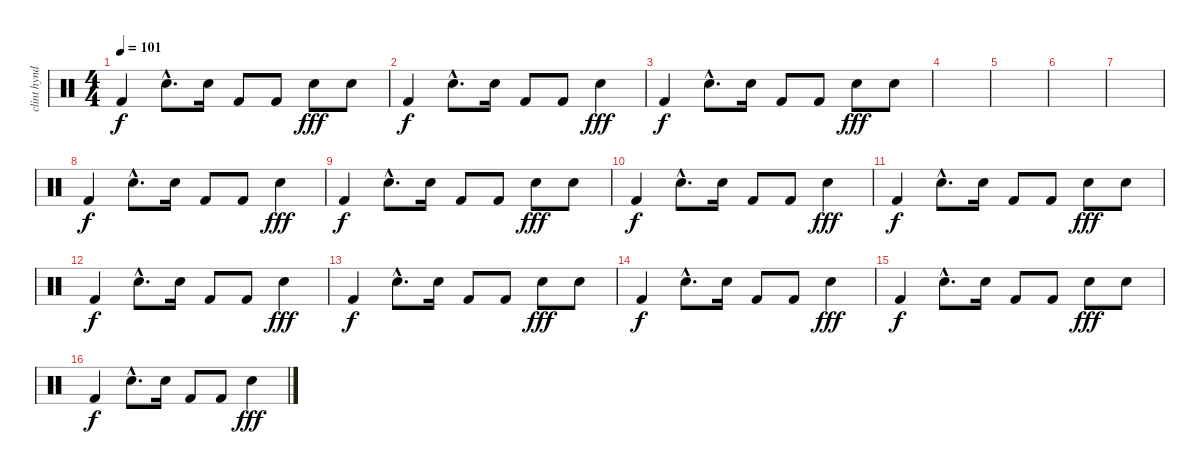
\track ("clint hyndman" "clint hynd") {instrument percussion}
\staff {score}
\articulation defaults
\ts (4 4)
\tempo 101
\clef neutral
\ks c "Kick (hit) 2".4{dy f} "Electric Snare (hit)"{hac}.8{d} "Electric Snare (hit)".16 "Kick (hit) 2".8 "Kick (hit) 2".8 "Electric Snare (hit)".8{dy fff} "Electric Snare (hit)".8
|
"Kick (hit) 2".4{dy f} "Electric Snare (hit)"{hac}.8{d} "Electric Snare (hit)".16 "Kick (hit) 2".8 "Kick (hit) 2".8 "Electric Snare (hit)".4{dy fff} |
"Kick (hit) 2".4{dy f} "Electric Snare (hit)"{hac}.8{d} "Electric Snare (hit)".16 "Kick (hit) 2".8 "Kick (hit) 2".8 "Electric Snare (hit)".8{dy fff} "Electric Snare (hit)".8 |
|
|
|
|
"Kick (hit) 2".4{dy f} "Electric Snare (hit)"{hac}.8{d} "Electric Snare (hit)".16 "Kick (hit) 2".8 "Kick (hit) 2".8 "Electric Snare (hit)".4{dy fff} |
"Kick (hit) 2".4{dy f} "Electric Snare (hit)"{hac}.8{d} "Electric Snare (hit)".16 "Kick (hit) 2".8 "Kick (hit) 2".8 "Electric Snare (hit)".8{dy fff} "Electric Snare (hit)".8 |
"Kick (hit) 2".4{dy f} "Electric Snare (hit)"{hac}.8{d} "Electric Snare (hit)".16 "Kick (hit) 2".8 "Kick (hit) 2".8 "Electric Snare (hit)".4{dy fff} |
"Kick (hit) 2".4{dy f} "Electric Snare (hit)"{hac}.8{d} "Electric Snare (hit)".16 "Kick (hit) 2".8 "Kick (hit) 2".8 "Electric Snare (hit)".8{dy fff} "Electric Snare (hit)".8 |
"Kick (hit) 2".4{dy f} "Electric Snare (hit)"{hac}.8{d} "Electric Snare (hit)".16 "Kick (hit) 2".8 "Kick (hit) 2".8 "Electric Snare (hit)".4{dy fff} |
"Kick (hit) 2".4{dy f} "Electric Snare (hit)"{hac}.8{d} "Electric Snare (hit)".16 "Kick (hit) 2".8 "Kick (hit) 2".8 "Electric Snare (hit)".8{dy fff} "Electric Snare (hit)".8 |
"Kick (hit) 2".4{dy f} "Electric Snare (hit)"{hac}.8{d} "Electric Snare (hit)".16 "Kick (hit) 2".8 "Kick (hit) 2".8 "Electric Snare (hit)".4{dy fff} |
"Kick (hit) 2".4{dy f} "Electric Snare (hit)"{hac}.8{d} "Electric Snare (hit)".16 "Kick (hit) 2".8 "Kick (hit) 2".8 "Electric Snare (hit)".8{dy fff} "Electric Snare (hit)".8 |
"Kick (hit) 2".4{dy f} "Electric Snare (hit)"{hac}.8{d} "Electric Snare (hit)".16 "Kick (hit) 2".8 "Kick (hit) 2".8 "Electric Snare (hit)".4{dy fff}
